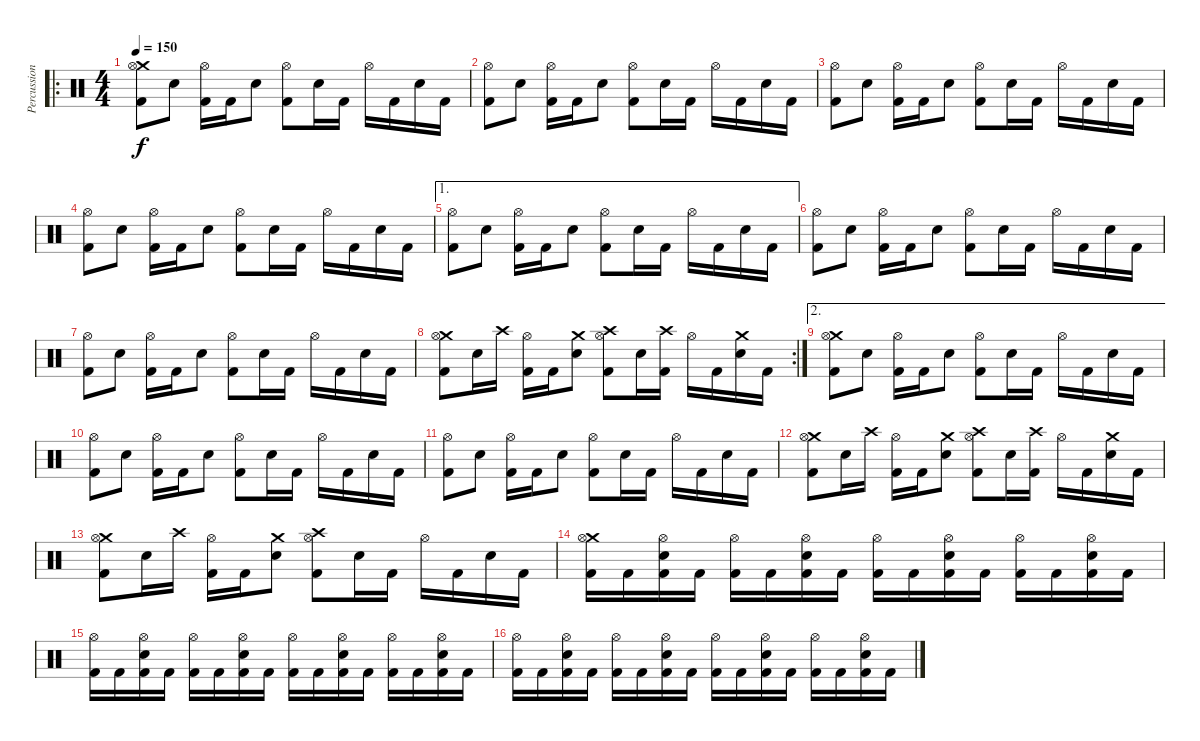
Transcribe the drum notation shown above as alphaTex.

\track ("Percussion" "Percussion") {instrument percussion}
\staff {score}
\articulation defaults
\ro
\ts (4 4)
\tempo 150
\clef neutral
\ks c
("Crash medium (hit)" "Hi-Hat (open)" "Kick (hit) 2").8{dy f} "Electric Snare (hit)".8 ("Hi-Hat (open)" "Kick (hit) 2").16 "Kick (hit) 2".16 "Electric Snare (hit)".8 ("Hi-Hat (open)" "Kick (hit) 2").8 "Electric Snare (hit)".16 "Kick (hit) 2".16 "Hi-Hat (open)".16 "Kick (hit) 2".16 "Electric Snare (hit)".16 "Kick (hit) 2".16 |
("Hi-Hat (open)" "Kick (hit) 2").8 "Electric Snare (hit)".8 ("Hi-Hat (open)" "Kick (hit) 2").16 "Kick (hit) 2".16 "Electric Snare (hit)".8 ("Hi-Hat (open)" "Kick (hit) 2").8 "Electric Snare (hit)".16 "Kick (hit) 2".16 "Hi-Hat (open)".16 "Kick (hit) 2".16 "Electric Snare (hit)".16 "Kick (hit) 2".16 |
("Hi-Hat (open)" "Kick (hit) 2").8 "Electric Snare (hit)".8 ("Hi-Hat (open)" "Kick (hit) 2").16 "Kick (hit) 2".16 "Electric Snare (hit)".8 ("Hi-Hat (open)" "Kick (hit) 2").8 "Electric Snare (hit)".16 "Kick (hit) 2".16 "Hi-Hat (open)".16 "Kick (hit) 2".16 "Electric Snare (hit)".16 "Kick (hit) 2".16 |
("Hi-Hat (open)" "Kick (hit) 2").8 "Electric Snare (hit)".8 ("Hi-Hat (open)" "Kick (hit) 2").16 "Kick (hit) 2".16 "Electric Snare (hit)".8 ("Hi-Hat (open)" "Kick (hit) 2").8 "Electric Snare (hit)".16 "Kick (hit) 2".16 "Hi-Hat (open)".16 "Kick (hit) 2".16 "Electric Snare (hit)".16 "Kick (hit) 2".16 |
\ae 1
("Hi-Hat (open)" "Kick (hit) 2").8 "Electric Snare (hit)".8 ("Hi-Hat (open)" "Kick (hit) 2").16 "Kick (hit) 2".16 "Electric Snare (hit)".8 ("Hi-Hat (open)" "Kick (hit) 2").8 "Electric Snare (hit)".16 "Kick (hit) 2".16 "Hi-Hat (open)".16 "Kick (hit) 2".16 "Electric Snare (hit)".16 "Kick (hit) 2".16 |
("Hi-Hat (open)" "Kick (hit) 2").8 "Electric Snare (hit)".8 ("Hi-Hat (open)" "Kick (hit) 2").16 "Kick (hit) 2".16 "Electric Snare (hit)".8 ("Hi-Hat (open)" "Kick (hit) 2").8 "Electric Snare (hit)".16 "Kick (hit) 2".16 "Hi-Hat (open)".16 "Kick (hit) 2".16 "Electric Snare (hit)".16 "Kick (hit) 2".16 |
("Hi-Hat (open)" "Kick (hit) 2").8 "Electric Snare (hit)".8 ("Hi-Hat (open)" "Kick (hit) 2").16 "Kick (hit) 2".16 "Electric Snare (hit)".8 ("Hi-Hat (open)" "Kick (hit) 2").8 "Electric Snare (hit)".16 "Kick (hit) 2".16 "Hi-Hat (open)".16 "Kick (hit) 2".16 "Electric Snare (hit)".16 "Kick (hit) 2".16 |
\rc 2
("Crash medium (hit)" "Hi-Hat (open)" "Kick (hit) 2").8 "Electric Snare (hit)".16 "Crash high (hit)".16 ("Hi-Hat (open)" "Kick (hit) 2").16 "Kick (hit) 2".16 ("Crash medium (hit)" "Electric Snare (hit)").8 ("Crash high (hit)" "Hi-Hat (open)" "Kick (hit) 2").8 "Electric Snare (hit)".16 ("Crash high (hit)" "Kick (hit) 2").16 "Hi-Hat (open)".16 "Kick (hit) 2".16 ("Crash medium (hit)" "Electric Snare (hit)").16 "Kick (hit) 2".16 |
\ae 2
("Crash medium (hit)" "Hi-Hat (open)" "Kick (hit) 2").8 "Electric Snare (hit)".8 ("Hi-Hat (open)" "Kick (hit) 2").16 "Kick (hit) 2".16 "Electric Snare (hit)".8 ("Hi-Hat (open)" "Kick (hit) 2").8 "Electric Snare (hit)".16 "Kick (hit) 2".16 "Hi-Hat (open)".16 "Kick (hit) 2".16 "Electric Snare (hit)".16 "Kick (hit) 2".16 |
("Hi-Hat (open)" "Kick (hit) 2").8 "Electric Snare (hit)".8 ("Hi-Hat (open)" "Kick (hit) 2").16 "Kick (hit) 2".16 "Electric Snare (hit)".8 ("Hi-Hat (open)" "Kick (hit) 2").8 "Electric Snare (hit)".16 "Kick (hit) 2".16 "Hi-Hat (open)".16 "Kick (hit) 2".16 "Electric Snare (hit)".16 "Kick (hit) 2".16 |
("Hi-Hat (open)" "Kick (hit) 2").8 "Electric Snare (hit)".8 ("Hi-Hat (open)" "Kick (hit) 2").16 "Kick (hit) 2".16 "Electric Snare (hit)".8 ("Hi-Hat (open)" "Kick (hit) 2").8 "Electric Snare (hit)".16 "Kick (hit) 2".16 "Hi-Hat (open)".16 "Kick (hit) 2".16 "Electric Snare (hit)".16 "Kick (hit) 2".16 |
("Crash medium (hit)" "Hi-Hat (open)" "Kick (hit) 2").8 "Electric Snare (hit)".16 "Crash high (hit)".16 ("Hi-Hat (open)" "Kick (hit) 2").16 "Kick (hit) 2".16 ("Crash medium (hit)" "Electric Snare (hit)").8 ("Crash high (hit)" "Hi-Hat (open)" "Kick (hit) 2").8 "Electric Snare (hit)".16 ("Crash high (hit)" "Kick (hit) 2").16 "Hi-Hat (open)".16 "Kick (hit) 2".16 ("Crash medium (hit)" "Electric Snare (hit)").16 "Kick (hit) 2".16 |
("Crash medium (hit)" "Hi-Hat (open)" "Kick (hit) 2").8 "Electric Snare (hit)".16 "Crash high (hit)".16 ("Hi-Hat (open)" "Kick (hit) 2").16 "Kick (hit) 2".16 ("Crash medium (hit)" "Electric Snare (hit)").8 ("Crash high (hit)" "Hi-Hat (open)" "Kick (hit) 2").8 "Electric Snare (hit)".16 "Kick (hit) 2".16 "Hi-Hat (open)".16 "Kick (hit) 2".16 "Electric Snare (hit)".16 "Kick (hit) 2".16 |
("Crash medium (hit)" "Hi-Hat (open)" "Kick (hit) 2").16 "Kick (hit) 2".16 ("Hi-Hat (open)" "Electric Snare (hit)" "Kick (hit) 2").16 "Kick (hit) 2".16 ("Hi-Hat (open)" "Kick (hit) 2").16 "Kick (hit) 2".16 ("Hi-Hat (open)" "Electric Snare (hit)" "Kick (hit) 2").16 "Kick (hit) 2".16 ("Hi-Hat (open)" "Kick (hit) 2").16 "Kick (hit) 2".16 ("Hi-Hat (open)" "Electric Snare (hit)" "Kick (hit) 2").16 "Kick (hit) 2".16 ("Hi-Hat (open)" "Kick (hit) 2").16 "Kick (hit) 2".16 ("Hi-Hat (open)" "Electric Snare (hit)" "Kick (hit) 2").16 "Kick (hit) 2".16 |
("Hi-Hat (open)" "Kick (hit) 2").16 "Kick (hit) 2".16 ("Hi-Hat (open)" "Electric Snare (hit)" "Kick (hit) 2").16 "Kick (hit) 2".16 ("Hi-Hat (open)" "Kick (hit) 2").16 "Kick (hit) 2".16 ("Hi-Hat (open)" "Electric Snare (hit)" "Kick (hit) 2").16 "Kick (hit) 2".16 ("Hi-Hat (open)" "Kick (hit) 2").16 "Kick (hit) 2".16 ("Hi-Hat (open)" "Electric Snare (hit)" "Kick (hit) 2").16 "Kick (hit) 2".16 ("Hi-Hat (open)" "Kick (hit) 2").16 "Kick (hit) 2".16 ("Hi-Hat (open)" "Electric Snare (hit)" "Kick (hit) 2").16 "Kick (hit) 2".16 |
("Hi-Hat (open)" "Kick (hit) 2").16 "Kick (hit) 2".16 ("Hi-Hat (open)" "Electric Snare (hit)" "Kick (hit) 2").16 "Kick (hit) 2".16 ("Hi-Hat (open)" "Kick (hit) 2").16 "Kick (hit) 2".16 ("Hi-Hat (open)" "Electric Snare (hit)" "Kick (hit) 2").16 "Kick (hit) 2".16 ("Hi-Hat (open)" "Kick (hit) 2").16 "Kick (hit) 2".16 ("Hi-Hat (open)" "Electric Snare (hit)" "Kick (hit) 2").16 "Kick (hit) 2".16 ("Hi-Hat (open)" "Kick (hit) 2").16 "Kick (hit) 2".16 ("Hi-Hat (open)" "Electric Snare (hit)" "Kick (hit) 2").16 "Kick (hit) 2".16
